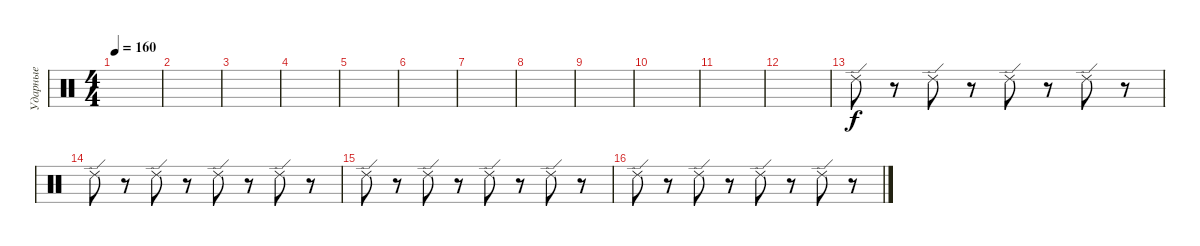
\track ("Ударные" "Ударные") {instrument percussion}
\staff {score}
\articulation defaults
\ts (4 4)
\tempo 160
\clef neutral
\ks c
|
|
|
|
|
|
|
|
|
|
|
|
"Ride (edge) 2".8 r.8 "Ride (edge) 2".8 r.8 "Ride (edge) 2".8 r.8 "Ride (edge) 2".8 r.8 |
"Ride (edge) 2".8 r.8 "Ride (edge) 2".8 r.8 "Ride (edge) 2".8 r.8 "Ride (edge) 2".8 r.8 |
"Ride (edge) 2".8 r.8 "Ride (edge) 2".8 r.8 "Ride (edge) 2".8 r.8 "Ride (edge) 2".8 r.8 |
"Ride (edge) 2".8 r.8 "Ride (edge) 2".8 r.8 "Ride (edge) 2".8 r.8 "Ride (edge) 2".8 r.8
